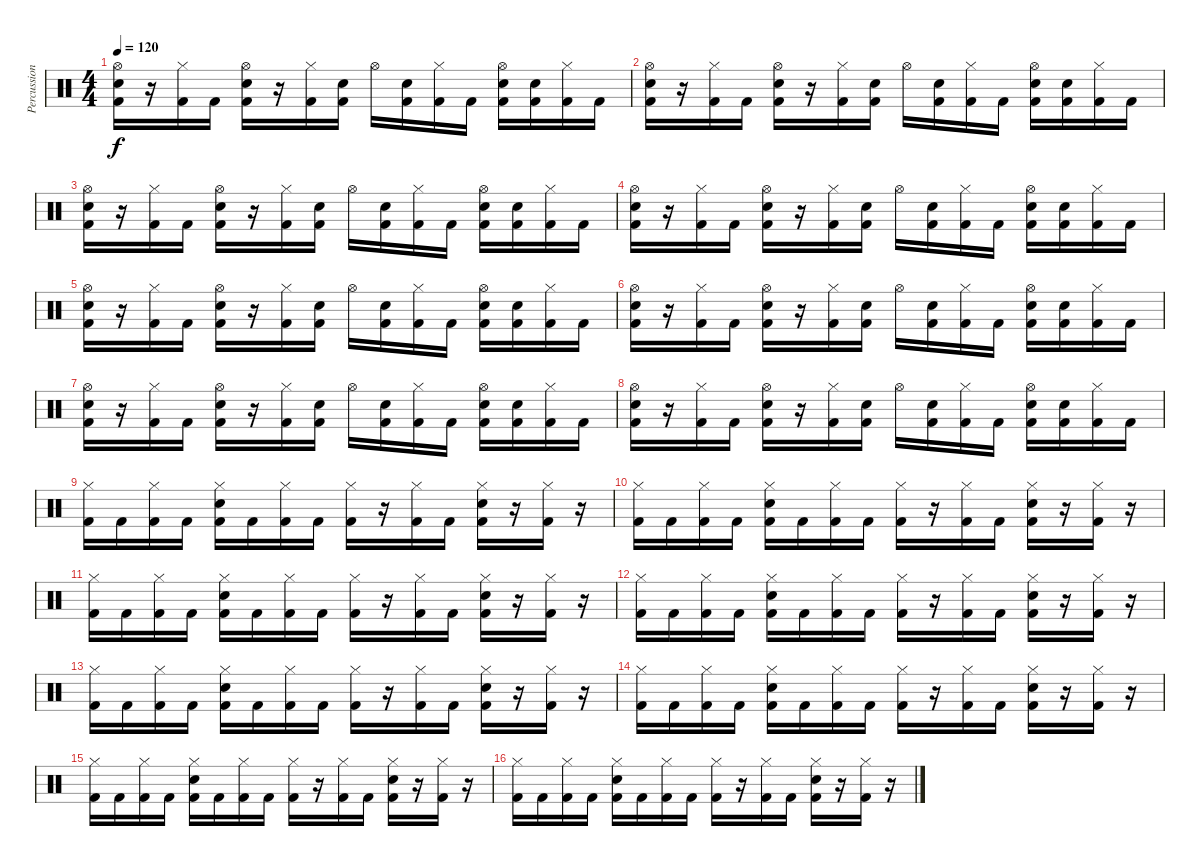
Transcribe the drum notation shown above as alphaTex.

\track ("Percussions" "Percussion") {instrument percussion}
\staff {score}
\articulation defaults
\ts (4 4)
\tempo 120
\clef neutral
\ks c
("Hi-Hat (open)" "Kick (hit) 2" "Snare (hit) 2").16{dy f} r.16 ("Hi-Hat (closed)" "Kick (hit) 2").16 "Kick (hit) 2".16 ("Hi-Hat (open)" "Kick (hit) 2" "Snare (hit) 2").16 r.16 ("Hi-Hat (closed)" "Kick (hit) 2").16 ("Kick (hit) 2" "Snare (hit) 2").16 "Hi-Hat (open)".16 ("Kick (hit) 2" "Snare (hit) 2").16 ("Hi-Hat (closed)" "Kick (hit) 2").16 "Kick (hit) 2".16 ("Hi-Hat (open)" "Kick (hit) 2" "Snare (hit) 2").16 ("Kick (hit) 2" "Snare (hit) 2").16 ("Hi-Hat (closed)" "Kick (hit) 2").16 "Kick (hit) 2".16 |
("Hi-Hat (open)" "Kick (hit) 2" "Snare (hit) 2").16 r.16 ("Hi-Hat (closed)" "Kick (hit) 2").16 "Kick (hit) 2".16 ("Hi-Hat (open)" "Kick (hit) 2" "Snare (hit) 2").16 r.16 ("Hi-Hat (closed)" "Kick (hit) 2").16 ("Kick (hit) 2" "Snare (hit) 2").16 "Hi-Hat (open)".16 ("Kick (hit) 2" "Snare (hit) 2").16 ("Hi-Hat (closed)" "Kick (hit) 2").16 "Kick (hit) 2".16 ("Hi-Hat (open)" "Kick (hit) 2" "Snare (hit) 2").16 ("Kick (hit) 2" "Snare (hit) 2").16 ("Hi-Hat (closed)" "Kick (hit) 2").16 "Kick (hit) 2".16 |
("Hi-Hat (open)" "Kick (hit) 2" "Snare (hit) 2").16 r.16 ("Hi-Hat (closed)" "Kick (hit) 2").16 "Kick (hit) 2".16 ("Hi-Hat (open)" "Kick (hit) 2" "Snare (hit) 2").16 r.16 ("Hi-Hat (closed)" "Kick (hit) 2").16 ("Kick (hit) 2" "Snare (hit) 2").16 "Hi-Hat (open)".16 ("Kick (hit) 2" "Snare (hit) 2").16 ("Hi-Hat (closed)" "Kick (hit) 2").16 "Kick (hit) 2".16 ("Hi-Hat (open)" "Kick (hit) 2" "Snare (hit) 2").16 ("Kick (hit) 2" "Snare (hit) 2").16 ("Hi-Hat (closed)" "Kick (hit) 2").16 "Kick (hit) 2".16 |
("Hi-Hat (open)" "Kick (hit) 2" "Snare (hit) 2").16 r.16 ("Hi-Hat (closed)" "Kick (hit) 2").16 "Kick (hit) 2".16 ("Hi-Hat (open)" "Kick (hit) 2" "Snare (hit) 2").16 r.16 ("Hi-Hat (closed)" "Kick (hit) 2").16 ("Kick (hit) 2" "Snare (hit) 2").16 "Hi-Hat (open)".16 ("Kick (hit) 2" "Snare (hit) 2").16 ("Hi-Hat (closed)" "Kick (hit) 2").16 "Kick (hit) 2".16 ("Hi-Hat (open)" "Kick (hit) 2" "Snare (hit) 2").16 ("Kick (hit) 2" "Snare (hit) 2").16 ("Hi-Hat (closed)" "Kick (hit) 2").16 "Kick (hit) 2".16 |
("Hi-Hat (open)" "Kick (hit) 2" "Snare (hit) 2").16 r.16 ("Hi-Hat (closed)" "Kick (hit) 2").16 "Kick (hit) 2".16 ("Hi-Hat (open)" "Kick (hit) 2" "Snare (hit) 2").16 r.16 ("Hi-Hat (closed)" "Kick (hit) 2").16 ("Kick (hit) 2" "Snare (hit) 2").16 "Hi-Hat (open)".16 ("Kick (hit) 2" "Snare (hit) 2").16 ("Hi-Hat (closed)" "Kick (hit) 2").16 "Kick (hit) 2".16 ("Hi-Hat (open)" "Kick (hit) 2" "Snare (hit) 2").16 ("Kick (hit) 2" "Snare (hit) 2").16 ("Hi-Hat (closed)" "Kick (hit) 2").16 "Kick (hit) 2".16 |
("Hi-Hat (open)" "Kick (hit) 2" "Snare (hit) 2").16 r.16 ("Hi-Hat (closed)" "Kick (hit) 2").16 "Kick (hit) 2".16 ("Hi-Hat (open)" "Kick (hit) 2" "Snare (hit) 2").16 r.16 ("Hi-Hat (closed)" "Kick (hit) 2").16 ("Kick (hit) 2" "Snare (hit) 2").16 "Hi-Hat (open)".16 ("Kick (hit) 2" "Snare (hit) 2").16 ("Hi-Hat (closed)" "Kick (hit) 2").16 "Kick (hit) 2".16 ("Hi-Hat (open)" "Kick (hit) 2" "Snare (hit) 2").16 ("Kick (hit) 2" "Snare (hit) 2").16 ("Hi-Hat (closed)" "Kick (hit) 2").16 "Kick (hit) 2".16 |
("Hi-Hat (open)" "Kick (hit) 2" "Snare (hit) 2").16 r.16 ("Hi-Hat (closed)" "Kick (hit) 2").16 "Kick (hit) 2".16 ("Hi-Hat (open)" "Kick (hit) 2" "Snare (hit) 2").16 r.16 ("Hi-Hat (closed)" "Kick (hit) 2").16 ("Kick (hit) 2" "Snare (hit) 2").16 "Hi-Hat (open)".16 ("Kick (hit) 2" "Snare (hit) 2").16 ("Hi-Hat (closed)" "Kick (hit) 2").16 "Kick (hit) 2".16 ("Hi-Hat (open)" "Kick (hit) 2" "Snare (hit) 2").16 ("Kick (hit) 2" "Snare (hit) 2").16 ("Hi-Hat (closed)" "Kick (hit) 2").16 "Kick (hit) 2".16 |
("Hi-Hat (open)" "Kick (hit) 2" "Snare (hit) 2").16 r.16 ("Hi-Hat (closed)" "Kick (hit) 2").16 "Kick (hit) 2".16 ("Hi-Hat (open)" "Kick (hit) 2" "Snare (hit) 2").16 r.16 ("Hi-Hat (closed)" "Kick (hit) 2").16 ("Kick (hit) 2" "Snare (hit) 2").16 "Hi-Hat (open)".16 ("Kick (hit) 2" "Snare (hit) 2").16 ("Hi-Hat (closed)" "Kick (hit) 2").16 "Kick (hit) 2".16 ("Hi-Hat (open)" "Kick (hit) 2" "Snare (hit) 2").16 ("Kick (hit) 2" "Snare (hit) 2").16 ("Hi-Hat (closed)" "Kick (hit) 2").16 "Kick (hit) 2".16 |
("Hi-Hat (closed)" "Kick (hit) 2").16 "Kick (hit) 2".16 ("Hi-Hat (closed)" "Kick (hit) 2").16 "Kick (hit) 2".16 ("Hi-Hat (closed)" "Kick (hit) 2" "Snare (hit) 2").16 "Kick (hit) 2".16 ("Hi-Hat (closed)" "Kick (hit) 2").16 "Kick (hit) 2".16 ("Hi-Hat (closed)" "Kick (hit) 2").16 r.16 ("Hi-Hat (closed)" "Kick (hit) 2").16 "Kick (hit) 2".16 ("Hi-Hat (closed)" "Kick (hit) 2" "Snare (hit) 2").16 r.16 ("Hi-Hat (closed)" "Kick (hit) 2").16 r.16 |
("Hi-Hat (closed)" "Kick (hit) 2").16 "Kick (hit) 2".16 ("Hi-Hat (closed)" "Kick (hit) 2").16 "Kick (hit) 2".16 ("Hi-Hat (closed)" "Kick (hit) 2" "Snare (hit) 2").16 "Kick (hit) 2".16 ("Hi-Hat (closed)" "Kick (hit) 2").16 "Kick (hit) 2".16 ("Hi-Hat (closed)" "Kick (hit) 2").16 r.16 ("Hi-Hat (closed)" "Kick (hit) 2").16 "Kick (hit) 2".16 ("Hi-Hat (closed)" "Kick (hit) 2" "Snare (hit) 2").16 r.16 ("Hi-Hat (closed)" "Kick (hit) 2").16 r.16 |
("Hi-Hat (closed)" "Kick (hit) 2").16 "Kick (hit) 2".16 ("Hi-Hat (closed)" "Kick (hit) 2").16 "Kick (hit) 2".16 ("Hi-Hat (closed)" "Kick (hit) 2" "Snare (hit) 2").16 "Kick (hit) 2".16 ("Hi-Hat (closed)" "Kick (hit) 2").16 "Kick (hit) 2".16 ("Hi-Hat (closed)" "Kick (hit) 2").16 r.16 ("Hi-Hat (closed)" "Kick (hit) 2").16 "Kick (hit) 2".16 ("Hi-Hat (closed)" "Kick (hit) 2" "Snare (hit) 2").16 r.16 ("Hi-Hat (closed)" "Kick (hit) 2").16 r.16 |
("Hi-Hat (closed)" "Kick (hit) 2").16 "Kick (hit) 2".16 ("Hi-Hat (closed)" "Kick (hit) 2").16 "Kick (hit) 2".16 ("Hi-Hat (closed)" "Kick (hit) 2" "Snare (hit) 2").16 "Kick (hit) 2".16 ("Hi-Hat (closed)" "Kick (hit) 2").16 "Kick (hit) 2".16 ("Hi-Hat (closed)" "Kick (hit) 2").16 r.16 ("Hi-Hat (closed)" "Kick (hit) 2").16 "Kick (hit) 2".16 ("Hi-Hat (closed)" "Kick (hit) 2" "Snare (hit) 2").16 r.16 ("Hi-Hat (closed)" "Kick (hit) 2").16 r.16 |
("Hi-Hat (closed)" "Kick (hit) 2").16 "Kick (hit) 2".16 ("Hi-Hat (closed)" "Kick (hit) 2").16 "Kick (hit) 2".16 ("Hi-Hat (closed)" "Kick (hit) 2" "Snare (hit) 2").16 "Kick (hit) 2".16 ("Hi-Hat (closed)" "Kick (hit) 2").16 "Kick (hit) 2".16 ("Hi-Hat (closed)" "Kick (hit) 2").16 r.16 ("Hi-Hat (closed)" "Kick (hit) 2").16 "Kick (hit) 2".16 ("Hi-Hat (closed)" "Kick (hit) 2" "Snare (hit) 2").16 r.16 ("Hi-Hat (closed)" "Kick (hit) 2").16 r.16 |
("Hi-Hat (closed)" "Kick (hit) 2").16 "Kick (hit) 2".16 ("Hi-Hat (closed)" "Kick (hit) 2").16 "Kick (hit) 2".16 ("Hi-Hat (closed)" "Kick (hit) 2" "Snare (hit) 2").16 "Kick (hit) 2".16 ("Hi-Hat (closed)" "Kick (hit) 2").16 "Kick (hit) 2".16 ("Hi-Hat (closed)" "Kick (hit) 2").16 r.16 ("Hi-Hat (closed)" "Kick (hit) 2").16 "Kick (hit) 2".16 ("Hi-Hat (closed)" "Kick (hit) 2" "Snare (hit) 2").16 r.16 ("Hi-Hat (closed)" "Kick (hit) 2").16 r.16 |
("Hi-Hat (closed)" "Kick (hit) 2").16 "Kick (hit) 2".16 ("Hi-Hat (closed)" "Kick (hit) 2").16 "Kick (hit) 2".16 ("Hi-Hat (closed)" "Kick (hit) 2" "Snare (hit) 2").16 "Kick (hit) 2".16 ("Hi-Hat (closed)" "Kick (hit) 2").16 "Kick (hit) 2".16 ("Hi-Hat (closed)" "Kick (hit) 2").16 r.16 ("Hi-Hat (closed)" "Kick (hit) 2").16 "Kick (hit) 2".16 ("Hi-Hat (closed)" "Kick (hit) 2" "Snare (hit) 2").16 r.16 ("Hi-Hat (closed)" "Kick (hit) 2").16 r.16 |
("Hi-Hat (closed)" "Kick (hit) 2").16 "Kick (hit) 2".16 ("Hi-Hat (closed)" "Kick (hit) 2").16 "Kick (hit) 2".16 ("Hi-Hat (closed)" "Kick (hit) 2" "Snare (hit) 2").16 "Kick (hit) 2".16 ("Hi-Hat (closed)" "Kick (hit) 2").16 "Kick (hit) 2".16 ("Hi-Hat (closed)" "Kick (hit) 2").16 r.16 ("Hi-Hat (closed)" "Kick (hit) 2").16 "Kick (hit) 2".16 ("Hi-Hat (closed)" "Kick (hit) 2" "Snare (hit) 2").16 r.16 ("Hi-Hat (closed)" "Kick (hit) 2").16 r.16
